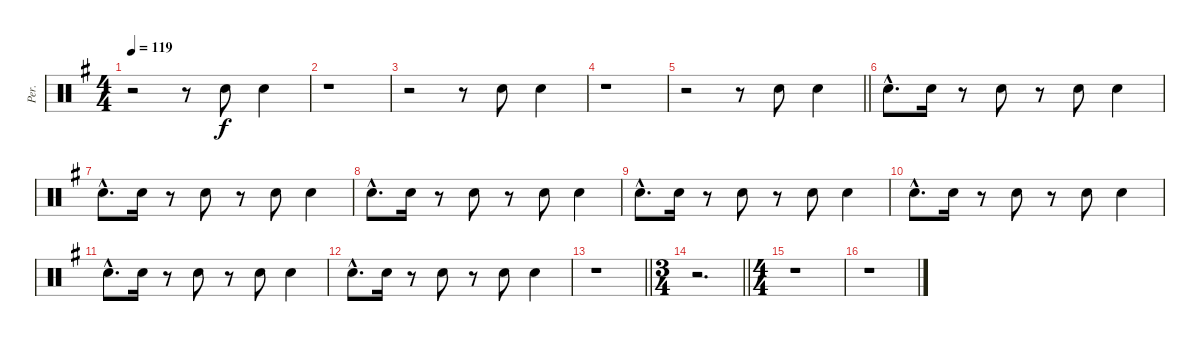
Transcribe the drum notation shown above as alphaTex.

\track ("Per." "Per.") {instrument percussion}
\staff {score}
\articulation defaults
\ts (4 4)
\tempo 119
\clef neutral
\ks eminor
r.2{dy f} r.8 "Hand Clap (hit)".8 "Hand Clap (hit)".4 |
r.1 |
r.2 r.8 "Hand Clap (hit)".8 "Hand Clap (hit)".4 |
r.1 |
\barLineRight lightlight
r.2 r.8 "Hand Clap (hit)".8 "Hand Clap (hit)".4 |
"Hand Clap (hit)"{hac}.8{d} "Hand Clap (hit)".16 r.8 "Hand Clap (hit)".8 r.8 "Hand Clap (hit)".8 "Hand Clap (hit)".4 |
"Hand Clap (hit)"{hac}.8{d} "Hand Clap (hit)".16 r.8 "Hand Clap (hit)".8 r.8 "Hand Clap (hit)".8 "Hand Clap (hit)".4 |
"Hand Clap (hit)"{hac}.8{d} "Hand Clap (hit)".16 r.8 "Hand Clap (hit)".8 r.8 "Hand Clap (hit)".8 "Hand Clap (hit)".4 |
"Hand Clap (hit)"{hac}.8{d} "Hand Clap (hit)".16 r.8 "Hand Clap (hit)".8 r.8 "Hand Clap (hit)".8 "Hand Clap (hit)".4 |
"Hand Clap (hit)"{hac}.8{d} "Hand Clap (hit)".16 r.8 "Hand Clap (hit)".8 r.8 "Hand Clap (hit)".8 "Hand Clap (hit)".4 |
"Hand Clap (hit)"{hac}.8{d} "Hand Clap (hit)".16 r.8 "Hand Clap (hit)".8 r.8 "Hand Clap (hit)".8 "Hand Clap (hit)".4 |
"Hand Clap (hit)"{hac}.8{d} "Hand Clap (hit)".16 r.8 "Hand Clap (hit)".8 r.8 "Hand Clap (hit)".8 "Hand Clap (hit)".4 |
\barLineRight lightlight
r.1 |
\ts (3 4)
\barLineRight lightlight
r.2{d} |
\ts (4 4)
r.1 |
r.1
